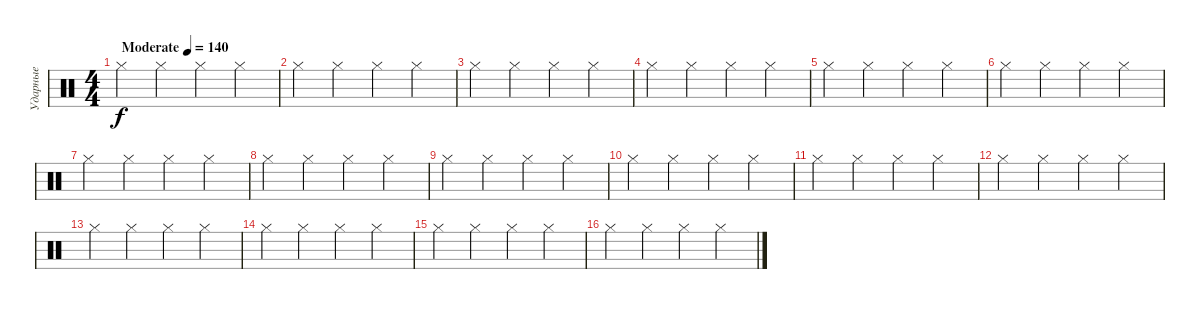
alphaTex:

\track ("Ударные" "Ударные") {instrument percussion}
\staff {score}
\articulation defaults
\ts (4 4)
\tempo (140 "Moderate")
\clef neutral
\ks c "Hi-Hat (closed)".4{dy f} "Hi-Hat (closed)".4 "Hi-Hat (closed)".4 "Hi-Hat (closed)".4
|
"Hi-Hat (closed)".4 "Hi-Hat (closed)".4 "Hi-Hat (closed)".4 "Hi-Hat (closed)".4 |
"Hi-Hat (closed)".4 "Hi-Hat (closed)".4 "Hi-Hat (closed)".4 "Hi-Hat (closed)".4 |
"Hi-Hat (closed)".4 "Hi-Hat (closed)".4 "Hi-Hat (closed)".4 "Hi-Hat (closed)".4 |
"Hi-Hat (closed)".4 "Hi-Hat (closed)".4 "Hi-Hat (closed)".4 "Hi-Hat (closed)".4 |
"Hi-Hat (closed)".4 "Hi-Hat (closed)".4 "Hi-Hat (closed)".4 "Hi-Hat (closed)".4 |
"Hi-Hat (closed)".4 "Hi-Hat (closed)".4 "Hi-Hat (closed)".4 "Hi-Hat (closed)".4 |
"Hi-Hat (closed)".4 "Hi-Hat (closed)".4 "Hi-Hat (closed)".4 "Hi-Hat (closed)".4 |
"Hi-Hat (closed)".4 "Hi-Hat (closed)".4 "Hi-Hat (closed)".4 "Hi-Hat (closed)".4 |
"Hi-Hat (closed)".4 "Hi-Hat (closed)".4 "Hi-Hat (closed)".4 "Hi-Hat (closed)".4 |
"Hi-Hat (closed)".4 "Hi-Hat (closed)".4 "Hi-Hat (closed)".4 "Hi-Hat (closed)".4 |
"Hi-Hat (closed)".4 "Hi-Hat (closed)".4 "Hi-Hat (closed)".4 "Hi-Hat (closed)".4 |
"Hi-Hat (closed)".4 "Hi-Hat (closed)".4 "Hi-Hat (closed)".4 "Hi-Hat (closed)".4 |
"Hi-Hat (closed)".4 "Hi-Hat (closed)".4 "Hi-Hat (closed)".4 "Hi-Hat (closed)".4 |
"Hi-Hat (closed)".4 "Hi-Hat (closed)".4 "Hi-Hat (closed)".4 "Hi-Hat (closed)".4 |
"Hi-Hat (closed)".4 "Hi-Hat (closed)".4 "Hi-Hat (closed)".4 "Hi-Hat (closed)".4
